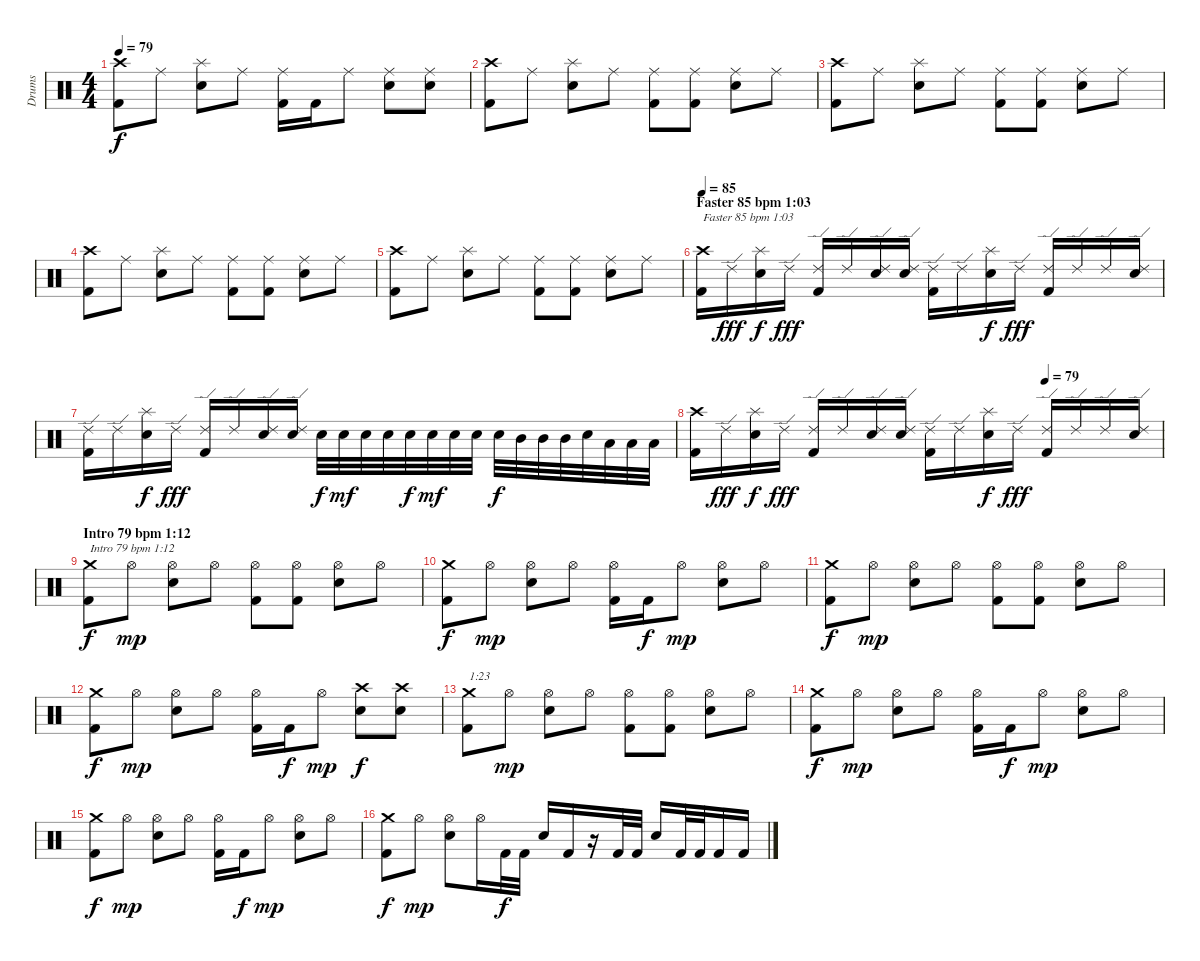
\track ("Drums" "Drums") {instrument percussion}
\staff {score}
\articulation defaults
\ts (4 4)
\tempo 79
\clef neutral
\ks c
("Kick (hit) 2" "Crash high (hit)").8{dy f} "Ride (middle)".8 ("Electric Snare (hit)" "Splash (hit)").8 "Ride (middle)".8 ("Kick (hit) 2" "Ride (middle)").16 "Kick (hit) 2".16 "Ride (middle)".8 ("Electric Snare (hit)" "Ride (middle)").8 ("Electric Snare (hit)" "Ride (middle)").8 |
("Kick (hit) 2" "Crash high (hit)").8 "Ride (middle)".8 ("Electric Snare (hit)" "Splash (hit)").8 "Ride (middle)".8 ("Kick (hit) 2" "Ride (middle)").8 ("Kick (hit) 2" "Ride (middle)").8 ("Electric Snare (hit)" "Ride (middle)").8 "Ride (middle)".8 |
("Kick (hit) 2" "Crash high (hit)").8 "Ride (middle)".8 ("Electric Snare (hit)" "Splash (hit)").8 "Ride (middle)".8 ("Kick (hit) 2" "Ride (middle)").8 ("Kick (hit) 2" "Ride (middle)").8 ("Electric Snare (hit)" "Ride (middle)").8 "Ride (middle)".8 |
("Kick (hit) 2" "Crash high (hit)").8 "Ride (middle)".8 ("Electric Snare (hit)" "Splash (hit)").8 "Ride (middle)".8 ("Kick (hit) 2" "Ride (middle)").8 ("Kick (hit) 2" "Ride (middle)").8 ("Electric Snare (hit)" "Ride (middle)").8 "Ride (middle)".8 |
("Kick (hit) 2" "Crash high (hit)").8 "Ride (middle)".8 ("Electric Snare (hit)" "Splash (hit)").8 "Ride (middle)".8 ("Kick (hit) 2" "Ride (middle)").8 ("Kick (hit) 2" "Ride (middle)").8 ("Electric Snare (hit)" "Ride (middle)").8 "Ride (middle)".8 |
\section ("" "Faster 85 bpm 1:03")
\tempo 85
("Kick (hit) 2" "Crash high (hit)").16{txt "Faster 85 bpm 1:03"} "Ride (edge) 2".16{dy fff} ("Electric Snare (hit)" "Splash (hit)").16{dy f} "Ride (edge) 2".16{dy fff} ("Kick (hit) 2" "Ride (edge) 2").16 "Ride (edge) 2".16 ("Electric Snare (hit)" "Ride (edge) 2").16 ("Electric Snare (hit)" "Ride (edge) 2").16 ("Kick (hit) 2" "Ride (edge) 2").16 "Ride (edge) 2".16 ("Electric Snare (hit)" "Splash (hit)").16{dy f} "Ride (edge) 2".16{dy fff} ("Kick (hit) 2" "Ride (edge) 2").16 "Ride (edge) 2".16 "Ride (edge) 2".16 ("Electric Snare (hit)" "Ride (edge) 2").16 |
("Kick (hit) 2" "Ride (edge) 2").16 "Ride (edge) 2".16 ("Electric Snare (hit)" "Splash (hit)").16{dy f} "Ride (edge) 2".16{dy fff} ("Kick (hit) 2" "Ride (edge) 2").16 "Ride (edge) 2".16 ("Electric Snare (hit)" "Ride (edge) 2").16 ("Electric Snare (hit)" "Ride (edge) 2").16 "Electric Snare (hit)".32{dy f} "Electric Snare (hit)".32{dy mf} "Electric Snare (hit)".32 "Electric Snare (hit)".32 "Electric Snare (hit)".32{dy f} "Electric Snare (hit)".32{dy mf} "Electric Snare (hit)".32 "Electric Snare (hit)".32 "Electric Snare (hit)".32{dy f} "Mid Tom (hit)".32 "Mid Tom (hit)".32 "Mid Tom (hit)".32 "Electric Snare (hit)".32 "Low Tom (hit)".32 "Low Tom (hit)".32 "Low Tom (hit)".32 |
\tempo (79 0.75)
("Kick (hit) 2" "Crash high (hit)").16 "Ride (edge) 2".16{dy fff} ("Electric Snare (hit)" "Splash (hit)").16{dy f} "Ride (edge) 2".16{dy fff} ("Kick (hit) 2" "Ride (edge) 2").16 "Ride (edge) 2".16 ("Electric Snare (hit)" "Ride (edge) 2").16 ("Electric Snare (hit)" "Ride (edge) 2").16 ("Kick (hit) 2" "Ride (edge) 2").16 "Ride (edge) 2".16 ("Electric Snare (hit)" "Splash (hit)").16{dy f} "Ride (edge) 2".16{dy fff} ("Kick (hit) 2" "Ride (edge) 2").16 "Ride (edge) 2".16 "Ride (edge) 2".16 ("Electric Snare (hit)" "Ride (edge) 2").16 |
\section ("" "Intro 79 bpm 1:12")
("Kick (hit) 2" "Crash medium (hit)").8{txt "Intro 79 bpm 1:12" dy f} "Hi-Hat (open)".8{dy mp} ("Electric Snare (hit)" "Hi-Hat (open)").8 "Hi-Hat (open)".8 ("Kick (hit) 2" "Hi-Hat (open)").8 ("Kick (hit) 2" "Hi-Hat (open)").8 ("Electric Snare (hit)" "Hi-Hat (open)").8 "Hi-Hat (open)".8 |
("Kick (hit) 2" "Crash medium (hit)").8{dy f} "Hi-Hat (open)".8{dy mp} ("Electric Snare (hit)" "Hi-Hat (open)").8 "Hi-Hat (open)".8 ("Kick (hit) 2" "Hi-Hat (open)").16 "Kick (hit) 2".16{dy f} "Hi-Hat (open)".8{dy mp} ("Electric Snare (hit)" "Hi-Hat (open)").8 "Hi-Hat (open)".8 |
("Kick (hit) 2" "Crash medium (hit)").8{dy f} "Hi-Hat (open)".8{dy mp} ("Electric Snare (hit)" "Hi-Hat (open)").8 "Hi-Hat (open)".8 ("Kick (hit) 2" "Hi-Hat (open)").8 ("Kick (hit) 2" "Hi-Hat (open)").8 ("Electric Snare (hit)" "Hi-Hat (open)").8 "Hi-Hat (open)".8 |
("Kick (hit) 2" "Crash medium (hit)").8{dy f} "Hi-Hat (open)".8{dy mp} ("Electric Snare (hit)" "Hi-Hat (open)").8 "Hi-Hat (open)".8 ("Kick (hit) 2" "Hi-Hat (open)").16 "Kick (hit) 2".16{dy f} "Hi-Hat (open)".8{dy mp} ("Electric Snare (hit)" "Crash high (hit)").8{dy f} ("Electric Snare (hit)" "Crash high (hit)").8 |
("Kick (hit) 2" "Crash medium (hit)").8{txt "1:23"} "Hi-Hat (open)".8{dy mp} ("Electric Snare (hit)" "Hi-Hat (open)").8 "Hi-Hat (open)".8 ("Kick (hit) 2" "Hi-Hat (open)").8 ("Kick (hit) 2" "Hi-Hat (open)").8 ("Electric Snare (hit)" "Hi-Hat (open)").8 "Hi-Hat (open)".8 |
("Kick (hit) 2" "Crash medium (hit)").8{dy f} "Hi-Hat (open)".8{dy mp} ("Electric Snare (hit)" "Hi-Hat (open)").8 "Hi-Hat (open)".8 ("Kick (hit) 2" "Hi-Hat (open)").16 "Kick (hit) 2".16{dy f} "Hi-Hat (open)".8{dy mp} ("Electric Snare (hit)" "Hi-Hat (open)").8 "Hi-Hat (open)".8 |
("Kick (hit) 2" "Crash medium (hit)").8{dy f} "Hi-Hat (open)".8{dy mp} ("Electric Snare (hit)" "Hi-Hat (open)").8 "Hi-Hat (open)".8 ("Kick (hit) 2" "Hi-Hat (open)").16 "Kick (hit) 2".16{dy f} "Hi-Hat (open)".8{dy mp} ("Electric Snare (hit)" "Hi-Hat (open)").8 "Hi-Hat (open)".8 |
("Kick (hit) 2" "Crash medium (hit)").8{dy f} "Hi-Hat (open)".8{dy mp} ("Electric Snare (hit)" "Hi-Hat (open)").8 "Hi-Hat (open)".16 "Kick (hit) 2".32{dy f} "Kick (hit) 2".32 "Electric Snare (hit)".16 "Kick (hit) 2".16 r.16 "Kick (hit) 2".32 "Kick (hit) 2".32 "Electric Snare (hit)".16 "Kick (hit) 2".32 "Kick (hit) 2".32 "Kick (hit) 2".16 "Kick (hit) 2".16
